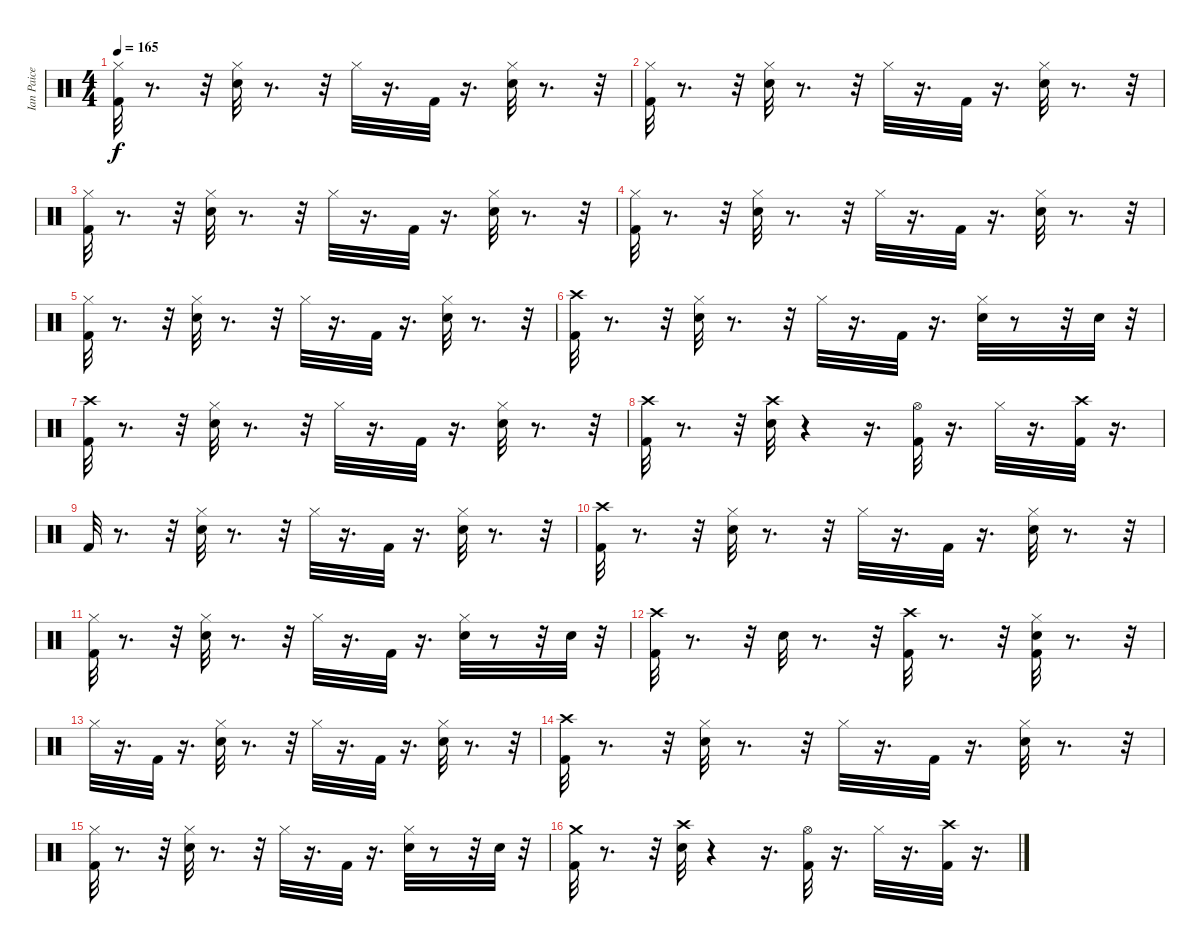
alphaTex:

\track ("Ian Paice" "Ian Paice") {instrument percussion}
\staff {score}
\articulation defaults
\ts (4 4)
\tempo 165
\clef neutral
\ks c
("Hi-Hat (closed)" "Kick (hit) 2").32{dy f} r.8{d} r.32 ("Hi-Hat (closed)" "Snare (hit) 2").32 r.8{d} r.32 "Hi-Hat (closed)".32 r.16{d} "Kick (hit) 2".32 r.16{d} ("Hi-Hat (closed)" "Snare (hit) 2").32 r.8{d} r.32 |
("Hi-Hat (closed)" "Kick (hit) 2").32 r.8{d} r.32 ("Hi-Hat (closed)" "Snare (hit) 2").32 r.8{d} r.32 "Hi-Hat (closed)".32 r.16{d} "Kick (hit) 2".32 r.16{d} ("Hi-Hat (closed)" "Snare (hit) 2").32 r.8{d} r.32 |
("Hi-Hat (closed)" "Kick (hit) 2").32 r.8{d} r.32 ("Hi-Hat (closed)" "Snare (hit) 2").32 r.8{d} r.32 "Hi-Hat (closed)".32 r.16{d} "Kick (hit) 2".32 r.16{d} ("Hi-Hat (closed)" "Snare (hit) 2").32 r.8{d} r.32 |
("Hi-Hat (closed)" "Kick (hit) 2").32 r.8{d} r.32 ("Hi-Hat (closed)" "Snare (hit) 2").32 r.8{d} r.32 "Hi-Hat (closed)".32 r.16{d} "Kick (hit) 2".32 r.16{d} ("Hi-Hat (closed)" "Snare (hit) 2").32 r.8{d} r.32 |
("Hi-Hat (closed)" "Kick (hit) 2").32 r.8{d} r.32 ("Hi-Hat (closed)" "Snare (hit) 2").32 r.8{d} r.32 "Hi-Hat (closed)".32 r.16{d} "Kick (hit) 2".32 r.16{d} ("Hi-Hat (closed)" "Snare (hit) 2").32 r.8{d} r.32 |
("Crash high (hit)" "Kick (hit) 2").32 r.8{d} r.32 ("Snare (hit) 2" "Hi-Hat (closed)").32 r.8{d} r.32 "Hi-Hat (closed)".32 r.16{d} "Kick (hit) 2".32 r.16{d} ("Snare (hit) 2" "Hi-Hat (closed)").32 r.8 r.32 "Snare (hit) 2".32 r.32 |
("Kick (hit) 2" "Crash high (hit)").32 r.8{d} r.32 ("Hi-Hat (closed)" "Snare (hit) 2").32 r.8{d} r.32 "Hi-Hat (closed)".32 r.16{d} "Kick (hit) 2".32 r.16{d} ("Hi-Hat (closed)" "Snare (hit) 2").32 r.8{d} r.32 |
("Crash high (hit)" "Kick (hit) 2").32 r.8{d} r.32 ("Snare (hit) 2" "Crash high (hit)").32 r.4 r.16{d} ("Hi-Hat (open)" "Kick (hit) 2").32 r.16{d} "Hi-Hat (closed)".32 r.16{d} ("Crash high (hit)" "Kick (hit) 2").32 r.16{d} |
"Kick (hit) 2".32 r.8{d} r.32 ("Hi-Hat (closed)" "Snare (hit) 2").32 r.8{d} r.32 "Hi-Hat (closed)".32 r.16{d} "Kick (hit) 2".32 r.16{d} ("Hi-Hat (closed)" "Snare (hit) 2").32 r.8{d} r.32 |
("Crash high (hit)" "Kick (hit) 2").32 r.8{d} r.32 ("Hi-Hat (closed)" "Snare (hit) 2").32 r.8{d} r.32 "Hi-Hat (closed)".32 r.16{d} "Kick (hit) 2".32 r.16{d} ("Hi-Hat (closed)" "Snare (hit) 2").32 r.8{d} r.32 |
("Kick (hit) 2" "Hi-Hat (closed)").32 r.8{d} r.32 ("Snare (hit) 2" "Hi-Hat (closed)").32 r.8{d} r.32 "Hi-Hat (closed)".32 r.16{d} "Kick (hit) 2".32 r.16{d} ("Snare (hit) 2" "Hi-Hat (closed)").32 r.8 r.32 "Snare (hit) 2".32 r.32 |
("Crash high (hit)" "Kick (hit) 2").32 r.8{d} r.32 "Snare (hit) 2".32 r.8{d} r.32 ("Kick (hit) 2" "Crash high (hit)").32 r.8{d} r.32 ("Hi-Hat (closed)" "Snare (hit) 2" "Kick (hit) 2").32 r.8{d} r.32 |
"Hi-Hat (closed)".32 r.16{d} "Kick (hit) 2".32 r.16{d} ("Snare (hit) 2" "Hi-Hat (closed)").32 r.8{d} r.32 "Hi-Hat (closed)".32 r.16{d} "Kick (hit) 2".32 r.16{d} ("Snare (hit) 2" "Hi-Hat (closed)").32 r.8{d} r.32 |
("Kick (hit) 2" "Crash high (hit)").32 r.8{d} r.32 ("Hi-Hat (closed)" "Snare (hit) 2").32 r.8{d} r.32 "Hi-Hat (closed)".32 r.16{d} "Kick (hit) 2".32 r.16{d} ("Hi-Hat (closed)" "Snare (hit) 2").32 r.8{d} r.32 |
("Hi-Hat (closed)" "Kick (hit) 2").32 r.8{d} r.32 ("Hi-Hat (closed)" "Snare (hit) 2").32 r.8{d} r.32 "Hi-Hat (closed)".32 r.16{d} "Kick (hit) 2".32 r.16{d} ("Hi-Hat (closed)" "Snare (hit) 2").32 r.8 r.32 "Snare (hit) 2".32 r.32 |
("Crash medium (hit)" "Kick (hit) 2").32 r.8{d} r.32 ("Snare (hit) 2" "Crash high (hit)").32 r.4 r.16{d} ("Hi-Hat (open)" "Kick (hit) 2").32 r.16{d} "Hi-Hat (closed)".32 r.16{d} ("Crash high (hit)" "Kick (hit) 2").32 r.16{d}
